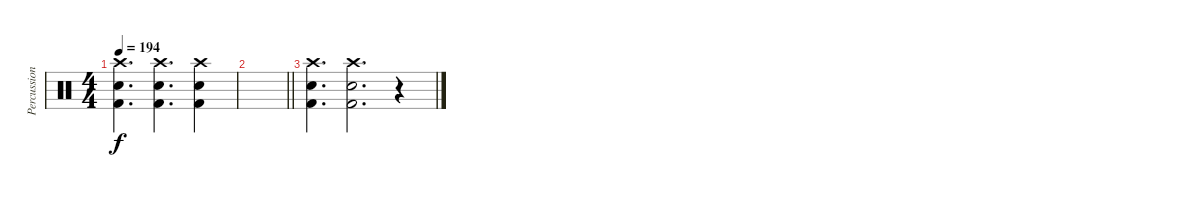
\track ("Percussion" "Percussion") {instrument percussion}
\staff {score}
\articulation defaults
\ts (4 4)
\tempo 194
\clef neutral
\ks c
("Crash high (hit)" "Electric Snare (hit)" "Kick (hit) 2").4{d dy f} ("Crash high (hit)" "Electric Snare (hit)" "Kick (hit) 2").4{d} ("Crash high (hit)" "Electric Snare (hit)" "Kick (hit) 2").4 |
\barLineRight lightlight
|
("Crash high (hit)" "Electric Snare (hit)" "Kick (hit) 2").4{d} ("Crash high (hit)" "Electric Snare (hit)" "Kick (hit) 2").2{d} r.4
